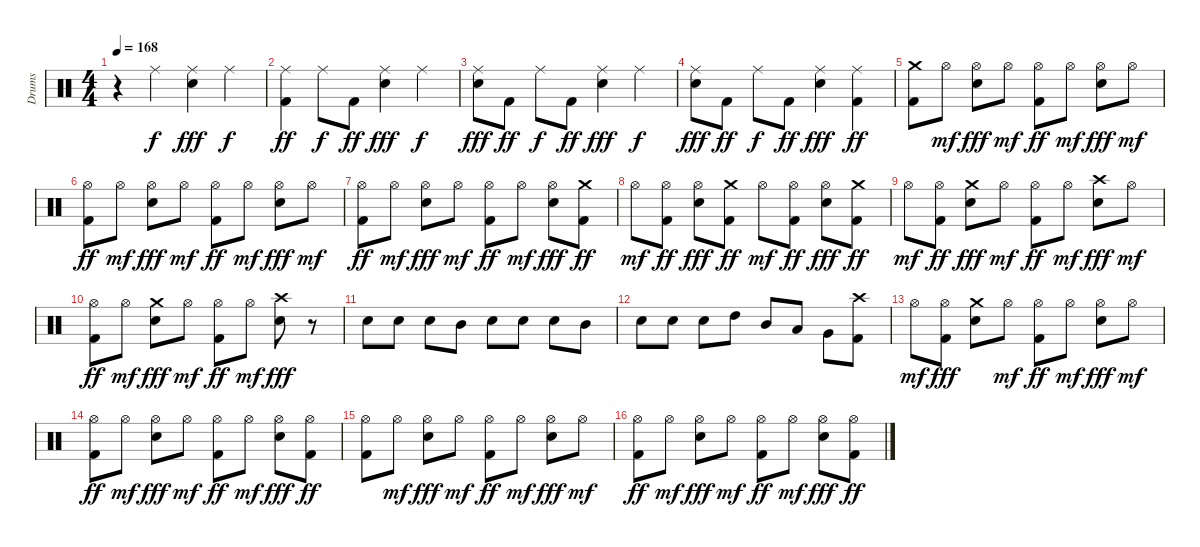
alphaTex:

\track ("Drums" "Drums") {instrument percussion}
\staff {score}
\articulation defaults
\ts (4 4)
\tempo 168
\clef neutral
\ks c
r.4{dy ff} "Ride (middle)".4{dy f} ("Snare (hit) 2" "Ride (middle)").4{dy fff} "Ride (middle)".4{dy f} |
("Kick (hit) 2" "Ride (middle)").4{dy ff} "Ride (middle)".8{dy f} "Kick (hit) 2".8{dy ff} ("Snare (hit) 2" "Ride (middle)").4{dy fff} "Ride (middle)".4{dy f} |
("Snare (hit) 2" "Ride (middle)").8{dy fff} "Kick (hit) 2".8{dy ff} "Ride (middle)".8{dy f} "Kick (hit) 2".8{dy ff} ("Snare (hit) 2" "Ride (middle)").4{dy fff} "Ride (middle)".4{dy f} |
("Snare (hit) 2" "Ride (middle)").8{dy fff} "Kick (hit) 2".8{dy ff} "Ride (middle)".8{dy f} "Kick (hit) 2".8{dy ff} ("Snare (hit) 2" "Ride (middle)").4{dy fff} ("Kick (hit) 2" "Ride (middle)").4{dy ff} |
("Kick (hit) 2" "Crash medium (hit)").8 "Hi-Hat (open)".8{dy mf} ("Hi-Hat (open)" "Snare (hit) 2").8{dy fff} "Hi-Hat (open)".8{dy mf} ("Hi-Hat (open)" "Kick (hit) 2").8{dy ff} "Hi-Hat (open)".8{dy mf} ("Hi-Hat (open)" "Snare (hit) 2").8{dy fff} "Hi-Hat (open)".8{dy mf} |
("Hi-Hat (open)" "Kick (hit) 2").8{dy ff} "Hi-Hat (open)".8{dy mf} ("Hi-Hat (open)" "Snare (hit) 2").8{dy fff} "Hi-Hat (open)".8{dy mf} ("Hi-Hat (open)" "Kick (hit) 2").8{dy ff} "Hi-Hat (open)".8{dy mf} ("Hi-Hat (open)" "Snare (hit) 2").8{dy fff} "Hi-Hat (open)".8{dy mf} |
("Hi-Hat (open)" "Kick (hit) 2").8{dy ff} "Hi-Hat (open)".8{dy mf} ("Hi-Hat (open)" "Snare (hit) 2").8{dy fff} "Hi-Hat (open)".8{dy mf} ("Hi-Hat (open)" "Kick (hit) 2").8{dy ff} "Hi-Hat (open)".8{dy mf} ("Hi-Hat (open)" "Snare (hit) 2").8{dy fff} ("Kick (hit) 2" "Crash medium (hit)").8{dy ff} |
"Hi-Hat (open)".8{dy mf} ("Hi-Hat (open)" "Kick (hit) 2").8{dy ff} ("Hi-Hat (open)" "Snare (hit) 2").8{dy fff} ("Kick (hit) 2" "Crash medium (hit)").8{dy ff} "Hi-Hat (open)".8{dy mf} ("Hi-Hat (open)" "Kick (hit) 2").8{dy ff} ("Hi-Hat (open)" "Snare (hit) 2").8{dy fff} ("Kick (hit) 2" "Crash medium (hit)").8{dy ff} |
"Hi-Hat (open)".8{dy mf} ("Hi-Hat (open)" "Kick (hit) 2").8{dy ff} ("Snare (hit) 2" "Crash medium (hit)").8{dy fff} "Hi-Hat (open)".8{dy mf} ("Hi-Hat (open)" "Kick (hit) 2").8{dy ff} "Hi-Hat (open)".8{dy mf} ("Snare (hit) 2" "Crash high (hit)").8{dy fff} "Hi-Hat (open)".8{dy mf} |
("Hi-Hat (open)" "Kick (hit) 2").8{dy ff} "Hi-Hat (open)".8{dy mf} ("Snare (hit) 2" "Crash medium (hit)").8{dy fff} "Hi-Hat (open)".8{dy mf} ("Hi-Hat (open)" "Kick (hit) 2").8{dy ff} "Hi-Hat (open)".8{dy mf} ("Snare (hit) 2" "Crash high (hit)").8{dy fff} r.8 |
"Snare (hit) 2".8 "Snare (hit) 2".8 "Snare (hit) 2".8 "Mid Tom (hit)".8 "Snare (hit) 2".8 "Snare (hit) 2".8 "Snare (hit) 2".8 "Mid Tom (hit)".8 |
"Snare (hit) 2".8 "Snare (hit) 2".8 "Snare (hit) 2".8 "High Tom (hit)".8 "Mid Tom (hit)".8 "Low Tom (hit)".8 "Very Low Tom (hit)".8 ("Kick (hit) 2" "Crash high (hit)").8 |
"Hi-Hat (open)".8{dy mf} ("Hi-Hat (open)" "Kick (hit) 2").8{dy fff} ("Snare (hit) 2" "Crash medium (hit)").8 "Hi-Hat (open)".8{dy mf} ("Hi-Hat (open)" "Kick (hit) 2").8{dy ff} "Hi-Hat (open)".8{dy mf} ("Hi-Hat (open)" "Snare (hit) 2").8{dy fff} "Hi-Hat (open)".8{dy mf} |
("Hi-Hat (open)" "Kick (hit) 2").8{dy ff} "Hi-Hat (open)".8{dy mf} ("Hi-Hat (open)" "Snare (hit) 2").8{dy fff} "Hi-Hat (open)".8{dy mf} ("Hi-Hat (open)" "Kick (hit) 2").8{dy ff} "Hi-Hat (open)".8{dy mf} ("Hi-Hat (open)" "Snare (hit) 2").8{dy fff} ("Hi-Hat (open)" "Kick (hit) 2").8{dy ff} |
("Hi-Hat (open)" "Kick (hit) 2").8 "Hi-Hat (open)".8{dy mf} ("Hi-Hat (open)" "Snare (hit) 2").8{dy fff} "Hi-Hat (open)".8{dy mf} ("Hi-Hat (open)" "Kick (hit) 2").8{dy ff} "Hi-Hat (open)".8{dy mf} ("Hi-Hat (open)" "Snare (hit) 2").8{dy fff} "Hi-Hat (open)".8{dy mf} |
("Hi-Hat (open)" "Kick (hit) 2").8{dy ff} "Hi-Hat (open)".8{dy mf} ("Hi-Hat (open)" "Snare (hit) 2").8{dy fff} "Hi-Hat (open)".8{dy mf} ("Hi-Hat (open)" "Kick (hit) 2").8{dy ff} "Hi-Hat (open)".8{dy mf} ("Hi-Hat (open)" "Snare (hit) 2").8{dy fff} ("Hi-Hat (open)" "Kick (hit) 2").8{dy ff}
